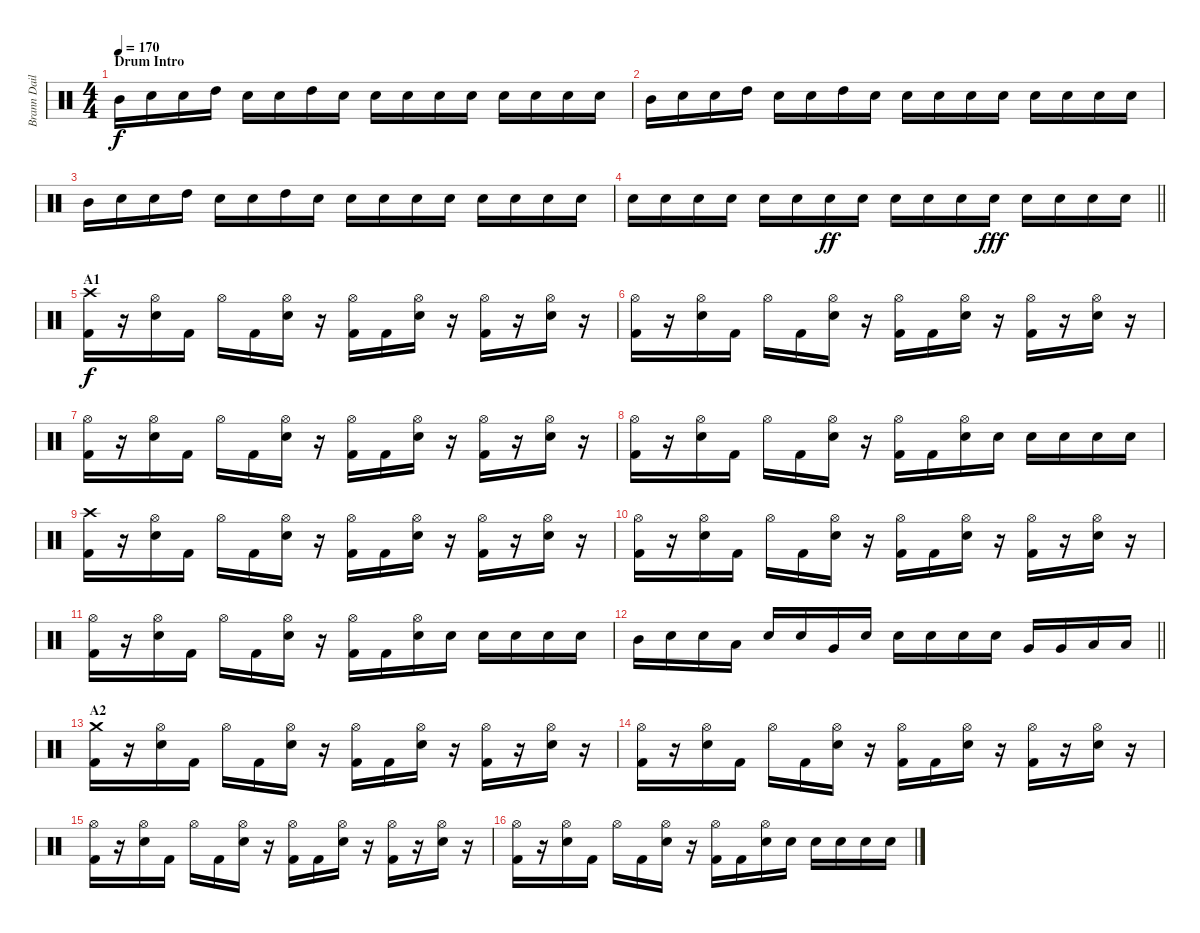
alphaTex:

\track ("Brann Dailor" "Brann Dail") {instrument percussion}
\staff {score}
\articulation defaults
\ts (4 4)
\section ("" "Drum Intro")
\tempo 170
\clef neutral
\ks c "Mid Tom (hit)".16{dy f} "Electric Snare (hit)".16 "Electric Snare (hit)".16 "High Tom (hit)".16 "Electric Snare (hit)".16 "Electric Snare (hit)".16 "High Tom (hit)".16 "Electric Snare (hit)".16 "Electric Snare (hit)".16 "Electric Snare (hit)".16 "Electric Snare (hit)".16 "Electric Snare (hit)".16 "Electric Snare (hit)".16 "Electric Snare (hit)".16 "Electric Snare (hit)".16 "Electric Snare (hit)".16
|
"Mid Tom (hit)".16 "Electric Snare (hit)".16 "Electric Snare (hit)".16 "High Tom (hit)".16 "Electric Snare (hit)".16 "Electric Snare (hit)".16 "High Tom (hit)".16 "Electric Snare (hit)".16 "Electric Snare (hit)".16 "Electric Snare (hit)".16 "Electric Snare (hit)".16 "Electric Snare (hit)".16 "Electric Snare (hit)".16 "Electric Snare (hit)".16 "Electric Snare (hit)".16 "Electric Snare (hit)".16 |
"Mid Tom (hit)".16 "Electric Snare (hit)".16 "Electric Snare (hit)".16 "High Tom (hit)".16 "Electric Snare (hit)".16 "Electric Snare (hit)".16 "High Tom (hit)".16 "Electric Snare (hit)".16 "Electric Snare (hit)".16 "Electric Snare (hit)".16 "Electric Snare (hit)".16 "Electric Snare (hit)".16 "Electric Snare (hit)".16 "Electric Snare (hit)".16 "Electric Snare (hit)".16 "Electric Snare (hit)".16 |
\barLineRight lightlight "Electric Snare (hit)".16 "Electric Snare (hit)".16 "Electric Snare (hit)".16 "Electric Snare (hit)".16 "Electric Snare (hit)".16 "Electric Snare (hit)".16 "Electric Snare (hit)".16{dy ff} "Electric Snare (hit)".16 "Electric Snare (hit)".16 "Electric Snare (hit)".16 "Electric Snare (hit)".16 "Electric Snare (hit)".16{dy fff} "Electric Snare (hit)".16 "Electric Snare (hit)".16 "Electric Snare (hit)".16 "Electric Snare (hit)".16
|
\section ("" "A1")
("Crash high (hit)" "Kick (hit) 2").16{dy f} r.16 ("Hi-Hat (open)" "Electric Snare (hit)").16 "Kick (hit) 2".16 "Hi-Hat (open)".16 "Kick (hit) 2".16 ("Hi-Hat (open)" "Electric Snare (hit)").16 r.16 ("Hi-Hat (open)" "Kick (hit) 2").16 "Kick (hit) 2".16 ("Hi-Hat (open)" "Electric Snare (hit)").16 r.16 ("Hi-Hat (open)" "Kick (hit) 2").16 r.16 ("Hi-Hat (open)" "Electric Snare (hit)").16 r.16 |
("Hi-Hat (open)" "Kick (hit) 2").16 r.16 ("Hi-Hat (open)" "Electric Snare (hit)").16 "Kick (hit) 2".16 "Hi-Hat (open)".16 "Kick (hit) 2".16 ("Hi-Hat (open)" "Electric Snare (hit)").16 r.16 ("Hi-Hat (open)" "Kick (hit) 2").16 "Kick (hit) 2".16 ("Hi-Hat (open)" "Electric Snare (hit)").16 r.16 ("Hi-Hat (open)" "Kick (hit) 2").16 r.16 ("Hi-Hat (open)" "Electric Snare (hit)").16 r.16 |
("Hi-Hat (open)" "Kick (hit) 2").16 r.16 ("Hi-Hat (open)" "Electric Snare (hit)").16 "Kick (hit) 2".16 "Hi-Hat (open)".16 "Kick (hit) 2".16 ("Hi-Hat (open)" "Electric Snare (hit)").16 r.16 ("Hi-Hat (open)" "Kick (hit) 2").16 "Kick (hit) 2".16 ("Hi-Hat (open)" "Electric Snare (hit)").16 r.16 ("Hi-Hat (open)" "Kick (hit) 2").16 r.16 ("Hi-Hat (open)" "Electric Snare (hit)").16 r.16 |
("Hi-Hat (open)" "Kick (hit) 2").16 r.16 ("Hi-Hat (open)" "Electric Snare (hit)").16 "Kick (hit) 2".16 "Hi-Hat (open)".16 "Kick (hit) 2".16 ("Hi-Hat (open)" "Electric Snare (hit)").16 r.16 ("Hi-Hat (open)" "Kick (hit) 2").16 "Kick (hit) 2".16 ("Hi-Hat (open)" "Electric Snare (hit)").16 "Electric Snare (hit)".16 "Electric Snare (hit)".16 "Electric Snare (hit)".16 "Electric Snare (hit)".16 "Electric Snare (hit)".16 |
("Crash high (hit)" "Kick (hit) 2").16 r.16 ("Hi-Hat (open)" "Electric Snare (hit)").16 "Kick (hit) 2".16 "Hi-Hat (open)".16 "Kick (hit) 2".16 ("Hi-Hat (open)" "Electric Snare (hit)").16 r.16 ("Hi-Hat (open)" "Kick (hit) 2").16 "Kick (hit) 2".16 ("Hi-Hat (open)" "Electric Snare (hit)").16 r.16 ("Hi-Hat (open)" "Kick (hit) 2").16 r.16 ("Hi-Hat (open)" "Electric Snare (hit)").16 r.16 |
("Hi-Hat (open)" "Kick (hit) 2").16 r.16 ("Hi-Hat (open)" "Electric Snare (hit)").16 "Kick (hit) 2".16 "Hi-Hat (open)".16 "Kick (hit) 2".16 ("Hi-Hat (open)" "Electric Snare (hit)").16 r.16 ("Hi-Hat (open)" "Kick (hit) 2").16 "Kick (hit) 2".16 ("Hi-Hat (open)" "Electric Snare (hit)").16 r.16 ("Hi-Hat (open)" "Kick (hit) 2").16 r.16 ("Hi-Hat (open)" "Electric Snare (hit)").16 r.16 |
("Hi-Hat (open)" "Kick (hit) 2").16 r.16 ("Hi-Hat (open)" "Electric Snare (hit)").16 "Kick (hit) 2".16 "Hi-Hat (open)".16 "Kick (hit) 2".16 ("Hi-Hat (open)" "Electric Snare (hit)").16 r.16 ("Hi-Hat (open)" "Kick (hit) 2").16 "Kick (hit) 2".16 ("Hi-Hat (open)" "Electric Snare (hit)").16 "Electric Snare (hit)".16 "Electric Snare (hit)".16 "Electric Snare (hit)".16 "Electric Snare (hit)".16 "Electric Snare (hit)".16 |
\barLineRight lightlight "Mid Tom (hit)".16 "Electric Snare (hit)".16 "Electric Snare (hit)".16 "Low Tom (hit)".16 "Electric Snare (hit)".16 "Electric Snare (hit)".16 "Very Low Tom (hit)".16 "Electric Snare (hit)".16 "Electric Snare (hit)".16 "Electric Snare (hit)".16 "Electric Snare (hit)".16 "Electric Snare (hit)".16 "Very Low Tom (hit)".16 "Very Low Tom (hit)".16 "Low Floor Tom (hit)".16 "Low Floor Tom (hit)".16
|
\section ("" "A2")
("Crash medium (hit)" "Kick (hit) 2").16 r.16 ("Hi-Hat (open)" "Electric Snare (hit)").16 "Kick (hit) 2".16 "Hi-Hat (open)".16 "Kick (hit) 2".16 ("Hi-Hat (open)" "Electric Snare (hit)").16 r.16 ("Hi-Hat (open)" "Kick (hit) 2").16 "Kick (hit) 2".16 ("Hi-Hat (open)" "Electric Snare (hit)").16 r.16 ("Hi-Hat (open)" "Kick (hit) 2").16 r.16 ("Hi-Hat (open)" "Electric Snare (hit)").16 r.16 |
("Hi-Hat (open)" "Kick (hit) 2").16 r.16 ("Hi-Hat (open)" "Electric Snare (hit)").16 "Kick (hit) 2".16 "Hi-Hat (open)".16 "Kick (hit) 2".16 ("Hi-Hat (open)" "Electric Snare (hit)").16 r.16 ("Hi-Hat (open)" "Kick (hit) 2").16 "Kick (hit) 2".16 ("Hi-Hat (open)" "Electric Snare (hit)").16 r.16 ("Hi-Hat (open)" "Kick (hit) 2").16 r.16 ("Hi-Hat (open)" "Electric Snare (hit)").16 r.16 |
("Hi-Hat (open)" "Kick (hit) 2").16 r.16 ("Hi-Hat (open)" "Electric Snare (hit)").16 "Kick (hit) 2".16 "Hi-Hat (open)".16 "Kick (hit) 2".16 ("Hi-Hat (open)" "Electric Snare (hit)").16 r.16 ("Hi-Hat (open)" "Kick (hit) 2").16 "Kick (hit) 2".16 ("Hi-Hat (open)" "Electric Snare (hit)").16 r.16 ("Hi-Hat (open)" "Kick (hit) 2").16 r.16 ("Hi-Hat (open)" "Electric Snare (hit)").16 r.16 |
("Hi-Hat (open)" "Kick (hit) 2").16 r.16 ("Hi-Hat (open)" "Electric Snare (hit)").16 "Kick (hit) 2".16 "Hi-Hat (open)".16 "Kick (hit) 2".16 ("Hi-Hat (open)" "Electric Snare (hit)").16 r.16 ("Hi-Hat (open)" "Kick (hit) 2").16 "Kick (hit) 2".16 ("Hi-Hat (open)" "Electric Snare (hit)").16 "Electric Snare (hit)".16 "Electric Snare (hit)".16 "Electric Snare (hit)".16 "Electric Snare (hit)".16 "Electric Snare (hit)".16
